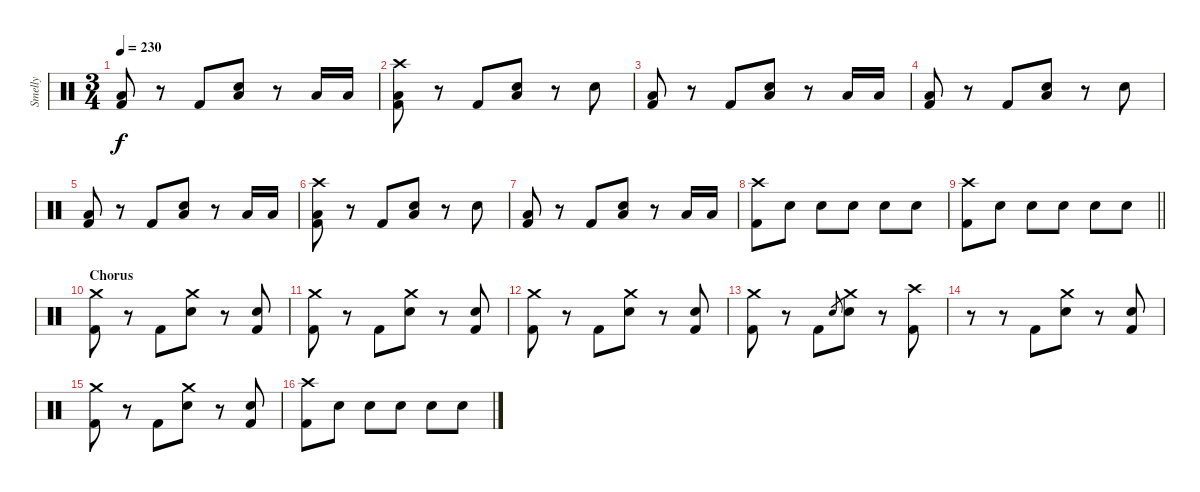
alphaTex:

\track ("Smelly" "Smelly") {instrument percussion}
\staff {score}
\articulation defaults
\ts (3 4)
\tempo 230
\clef neutral
\ks c
("Low Floor Tom (hit)" "Kick (hit) 2").8{dy f} r.8 "Kick (hit) 2".8 ("Low Floor Tom (hit)" "Electric Snare (hit)").8 r.8 "Low Floor Tom (hit)".16 "Low Floor Tom (hit)".16 |
("Crash high (hit)" "Low Floor Tom (hit)" "Kick (hit) 2").8 r.8 "Kick (hit) 2".8 ("Low Floor Tom (hit)" "Electric Snare (hit)").8 r.8 "Electric Snare (hit)".8 |
("Low Floor Tom (hit)" "Kick (hit) 2").8 r.8 "Kick (hit) 2".8 ("Low Floor Tom (hit)" "Electric Snare (hit)").8 r.8 "Low Floor Tom (hit)".16 "Low Floor Tom (hit)".16 |
("Low Floor Tom (hit)" "Kick (hit) 2").8 r.8 "Kick (hit) 2".8 ("Low Floor Tom (hit)" "Electric Snare (hit)").8 r.8 "Electric Snare (hit)".8 |
("Low Floor Tom (hit)" "Kick (hit) 2").8 r.8 "Kick (hit) 2".8 ("Low Floor Tom (hit)" "Electric Snare (hit)").8 r.8 "Low Floor Tom (hit)".16 "Low Floor Tom (hit)".16 |
("Crash high (hit)" "Low Floor Tom (hit)" "Kick (hit) 2").8 r.8 "Kick (hit) 2".8 ("Low Floor Tom (hit)" "Electric Snare (hit)").8 r.8 "Electric Snare (hit)".8 |
("Low Floor Tom (hit)" "Kick (hit) 2").8 r.8 "Kick (hit) 2".8 ("Low Floor Tom (hit)" "Electric Snare (hit)").8 r.8 "Low Floor Tom (hit)".16 "Low Floor Tom (hit)".16 |
("Crash high (hit)" "Kick (hit) 2").8 "Electric Snare (hit)".8 "Electric Snare (hit)".8 "Electric Snare (hit)".8 "Electric Snare (hit)".8 "Electric Snare (hit)".8 |
\barLineRight lightlight
("Crash high (hit)" "Kick (hit) 2").8 "Electric Snare (hit)".8 "Electric Snare (hit)".8 "Electric Snare (hit)".8 "Electric Snare (hit)".8 "Electric Snare (hit)".8 |
\section ("" "Chorus")
("Crash medium (hit)" "Kick (hit) 2").8 r.8 "Kick (hit) 2".8 ("Crash medium (hit)" "Electric Snare (hit)").8 r.8 ("Electric Snare (hit)" "Kick (hit) 2").8 |
("Crash medium (hit)" "Kick (hit) 2").8 r.8 "Kick (hit) 2".8 ("Crash medium (hit)" "Electric Snare (hit)").8 r.8 ("Electric Snare (hit)" "Kick (hit) 2").8 |
("Crash medium (hit)" "Kick (hit) 2").8 r.8 "Kick (hit) 2".8 ("Crash medium (hit)" "Electric Snare (hit)").8 r.8 ("Electric Snare (hit)" "Kick (hit) 2").8 |
("Crash medium (hit)" "Kick (hit) 2").8 r.8 "Kick (hit) 2".8 "Electric Snare (hit)".8{gr} ("Crash medium (hit)" "Electric Snare (hit)").8 r.8 ("Crash high (hit)" "Kick (hit) 2").8 |
r.8 r.8 "Kick (hit) 2".8 ("Crash medium (hit)" "Electric Snare (hit)").8 r.8 ("Electric Snare (hit)" "Kick (hit) 2").8 |
("Crash medium (hit)" "Kick (hit) 2").8 r.8 "Kick (hit) 2".8 ("Crash medium (hit)" "Electric Snare (hit)").8 r.8 ("Electric Snare (hit)" "Kick (hit) 2").8 |
("Crash high (hit)" "Kick (hit) 2").8 "Electric Snare (hit)".8 "Electric Snare (hit)".8 "Electric Snare (hit)".8 "Electric Snare (hit)".8 "Electric Snare (hit)".8
